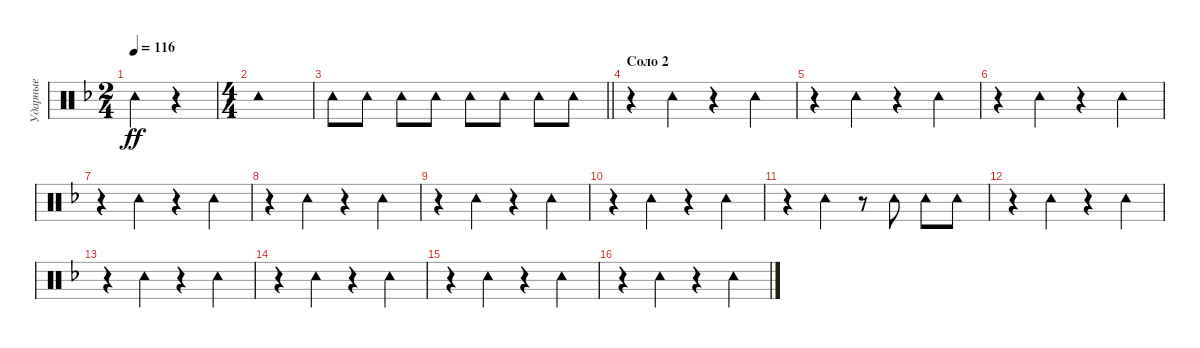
\track ("Ударные" "Ударные") {instrument percussion}
\staff {score}
\articulation defaults
\ts (2 4)
\tempo 116
\clef neutral
\ks dminor "Tambourine (hit)".4{dy ff}
r.4 |
\ts (4 4)
"Tambourine (hit)".1 |
\barLineRight lightlight "Tambourine (hit)".8 "Tambourine (hit)".8 "Tambourine (hit)".8 "Tambourine (hit)".8 "Tambourine (hit)".8 "Tambourine (hit)".8 "Tambourine (hit)".8 "Tambourine (hit)".8
|
\section ("" "Соло 2")
r.4 "Tambourine (hit)".4 r.4 "Tambourine (hit)".4 |
r.4 "Tambourine (hit)".4 r.4 "Tambourine (hit)".4 |
r.4 "Tambourine (hit)".4 r.4 "Tambourine (hit)".4 |
r.4 "Tambourine (hit)".4 r.4 "Tambourine (hit)".4 |
r.4 "Tambourine (hit)".4 r.4 "Tambourine (hit)".4 |
r.4 "Tambourine (hit)".4 r.4 "Tambourine (hit)".4 |
r.4 "Tambourine (hit)".4 r.4 "Tambourine (hit)".4 |
r.4 "Tambourine (hit)".4 r.8 "Tambourine (hit)".8 "Tambourine (hit)".8 "Tambourine (hit)".8 |
r.4 "Tambourine (hit)".4 r.4 "Tambourine (hit)".4 |
r.4 "Tambourine (hit)".4 r.4 "Tambourine (hit)".4 |
r.4 "Tambourine (hit)".4 r.4 "Tambourine (hit)".4 |
r.4 "Tambourine (hit)".4 r.4 "Tambourine (hit)".4 |
r.4 "Tambourine (hit)".4 r.4 "Tambourine (hit)".4
